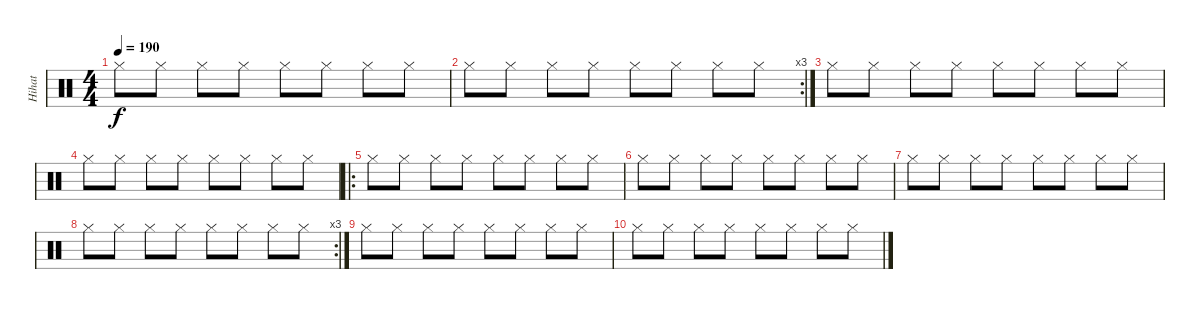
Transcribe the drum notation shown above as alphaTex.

\track ("Hihat" "Hihat") {instrument percussion}
\staff {score}
\articulation defaults
\ts (4 4)
\tempo 190
\clef neutral
\ks c "Hi-Hat (closed)".8{dy f} "Hi-Hat (closed)".8 "Hi-Hat (closed)".8 "Hi-Hat (closed)".8 "Hi-Hat (closed)".8 "Hi-Hat (closed)".8 "Hi-Hat (closed)".8 "Hi-Hat (closed)".8
|
\rc 3 "Hi-Hat (closed)".8 "Hi-Hat (closed)".8 "Hi-Hat (closed)".8 "Hi-Hat (closed)".8 "Hi-Hat (closed)".8 "Hi-Hat (closed)".8 "Hi-Hat (closed)".8 "Hi-Hat (closed)".8
|
"Hi-Hat (closed)".8 "Hi-Hat (closed)".8 "Hi-Hat (closed)".8 "Hi-Hat (closed)".8 "Hi-Hat (closed)".8 "Hi-Hat (closed)".8 "Hi-Hat (closed)".8 "Hi-Hat (closed)".8 |
"Hi-Hat (closed)".8 "Hi-Hat (closed)".8 "Hi-Hat (closed)".8 "Hi-Hat (closed)".8 "Hi-Hat (closed)".8 "Hi-Hat (closed)".8 "Hi-Hat (closed)".8 "Hi-Hat (closed)".8 |
\ro "Hi-Hat (closed)".8 "Hi-Hat (closed)".8 "Hi-Hat (closed)".8 "Hi-Hat (closed)".8 "Hi-Hat (closed)".8 "Hi-Hat (closed)".8 "Hi-Hat (closed)".8 "Hi-Hat (closed)".8
|
"Hi-Hat (closed)".8 "Hi-Hat (closed)".8 "Hi-Hat (closed)".8 "Hi-Hat (closed)".8 "Hi-Hat (closed)".8 "Hi-Hat (closed)".8 "Hi-Hat (closed)".8 "Hi-Hat (closed)".8 |
"Hi-Hat (closed)".8 "Hi-Hat (closed)".8 "Hi-Hat (closed)".8 "Hi-Hat (closed)".8 "Hi-Hat (closed)".8 "Hi-Hat (closed)".8 "Hi-Hat (closed)".8 "Hi-Hat (closed)".8 |
\rc 3 "Hi-Hat (closed)".8 "Hi-Hat (closed)".8 "Hi-Hat (closed)".8 "Hi-Hat (closed)".8 "Hi-Hat (closed)".8 "Hi-Hat (closed)".8 "Hi-Hat (closed)".8 "Hi-Hat (closed)".8
|
"Hi-Hat (closed)".8 "Hi-Hat (closed)".8 "Hi-Hat (closed)".8 "Hi-Hat (closed)".8 "Hi-Hat (closed)".8 "Hi-Hat (closed)".8 "Hi-Hat (closed)".8 "Hi-Hat (closed)".8 |
"Hi-Hat (closed)".8 "Hi-Hat (closed)".8 "Hi-Hat (closed)".8 "Hi-Hat (closed)".8 "Hi-Hat (closed)".8 "Hi-Hat (closed)".8 "Hi-Hat (closed)".8 "Hi-Hat (closed)".8
